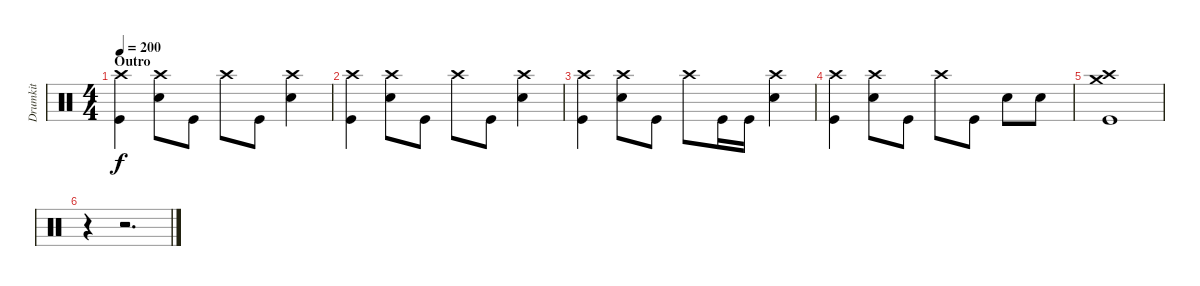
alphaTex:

\track ("Drumkit" "Drumkit") {instrument percussion}
\staff {score}
\articulation defaults
\ts (4 4)
\section ("" "Outro")
\tempo 200
\clef neutral
\ks c
("Kick (hit)" "Crash high (hit)").4{dy f} ("Snare (hit) 2" "Crash high (hit)").8 "Kick (hit)".8 "Crash high (hit)".8 "Kick (hit)".8 ("Snare (hit) 2" "Crash high (hit)").4 |
("Kick (hit)" "Crash high (hit)").4 ("Snare (hit) 2" "Crash high (hit)").8 "Kick (hit)".8 "Crash high (hit)".8 "Kick (hit)".8 ("Snare (hit) 2" "Crash high (hit)").4 |
("Kick (hit)" "Crash high (hit)").4 ("Snare (hit) 2" "Crash high (hit)").8 "Kick (hit)".8 "Crash high (hit)".8 "Kick (hit)".16 "Kick (hit)".16 ("Snare (hit) 2" "Crash high (hit)").4 |
("Kick (hit)" "Crash high (hit)").4 ("Snare (hit) 2" "Crash high (hit)").8 "Kick (hit)".8 "Crash high (hit)".8 "Kick (hit)".8 "Snare (hit) 2".8 "Snare (hit) 2".8 |
("Crash high (hit)" "Crash medium (hit)" "Kick (hit)").1 |
r.4 r.2{d}
